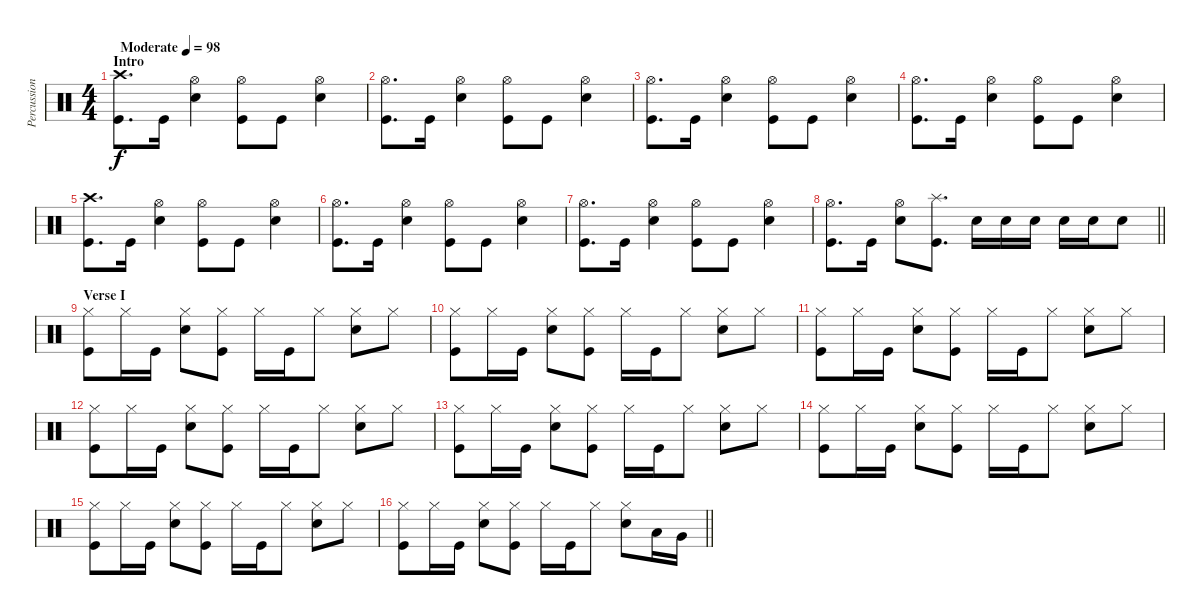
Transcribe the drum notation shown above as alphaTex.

\track ("Percussion" "Percussion") {instrument percussion}
\staff {score}
\articulation defaults
\ts (4 4)
\section ("" "Intro")
\tempo (98 "Moderate")
\clef neutral
\ks c
("Crash high (hit)" "Kick (hit)").8{d dy f} "Kick (hit)".16 ("Hi-Hat (open)" "Electric Snare (hit)").4 ("Hi-Hat (open)" "Kick (hit)").8 "Kick (hit)".8 ("Hi-Hat (open)" "Electric Snare (hit)").4 |
("Hi-Hat (open)" "Kick (hit)").8{d} "Kick (hit)".16 ("Hi-Hat (open)" "Electric Snare (hit)").4 ("Hi-Hat (open)" "Kick (hit)").8 "Kick (hit)".8 ("Hi-Hat (open)" "Electric Snare (hit)").4 |
("Hi-Hat (open)" "Kick (hit)").8{d} "Kick (hit)".16 ("Hi-Hat (open)" "Electric Snare (hit)").4 ("Hi-Hat (open)" "Kick (hit)").8 "Kick (hit)".8 ("Hi-Hat (open)" "Electric Snare (hit)").4 |
("Hi-Hat (open)" "Kick (hit)").8{d} "Kick (hit)".16 ("Hi-Hat (open)" "Electric Snare (hit)").4 ("Hi-Hat (open)" "Kick (hit)").8 "Kick (hit)".8 ("Hi-Hat (open)" "Electric Snare (hit)").4 |
("Crash high (hit)" "Kick (hit)").8{d} "Kick (hit)".16 ("Hi-Hat (open)" "Electric Snare (hit)").4 ("Hi-Hat (open)" "Kick (hit)").8 "Kick (hit)".8 ("Hi-Hat (open)" "Electric Snare (hit)").4 |
("Hi-Hat (open)" "Kick (hit)").8{d} "Kick (hit)".16 ("Hi-Hat (open)" "Electric Snare (hit)").4 ("Hi-Hat (open)" "Kick (hit)").8 "Kick (hit)".8 ("Hi-Hat (open)" "Electric Snare (hit)").4 |
("Hi-Hat (open)" "Kick (hit)").8{d} "Kick (hit)".16 ("Hi-Hat (open)" "Electric Snare (hit)").4 ("Hi-Hat (open)" "Kick (hit)").8 "Kick (hit)".8 ("Hi-Hat (open)" "Electric Snare (hit)").4 |
\barLineRight lightlight
("Hi-Hat (open)" "Kick (hit)").8{d} "Kick (hit)".16 ("Hi-Hat (open)" "Electric Snare (hit)").8 ("Splash (hit)" "Kick (hit)").8{d} "Electric Snare (hit)".16 "Electric Snare (hit)".16 "Electric Snare (hit)".16 "Electric Snare (hit)".16 "Electric Snare (hit)".16 "Electric Snare (hit)".8 |
\section ("" "Verse I")
("Hi-Hat (closed)" "Kick (hit)").8 "Hi-Hat (closed)".16 "Kick (hit)".16 ("Hi-Hat (closed)" "Electric Snare (hit)").8 ("Hi-Hat (closed)" "Kick (hit)").8 "Hi-Hat (closed)".16 "Kick (hit)".16 "Hi-Hat (closed)".8 ("Hi-Hat (closed)" "Electric Snare (hit)").8 "Hi-Hat (closed)".8 |
("Hi-Hat (closed)" "Kick (hit)").8 "Hi-Hat (closed)".16 "Kick (hit)".16 ("Hi-Hat (closed)" "Electric Snare (hit)").8 ("Hi-Hat (closed)" "Kick (hit)").8 "Hi-Hat (closed)".16 "Kick (hit)".16 "Hi-Hat (closed)".8 ("Hi-Hat (closed)" "Electric Snare (hit)").8 "Hi-Hat (closed)".8 |
("Hi-Hat (closed)" "Kick (hit)").8 "Hi-Hat (closed)".16 "Kick (hit)".16 ("Hi-Hat (closed)" "Electric Snare (hit)").8 ("Hi-Hat (closed)" "Kick (hit)").8 "Hi-Hat (closed)".16 "Kick (hit)".16 "Hi-Hat (closed)".8 ("Hi-Hat (closed)" "Electric Snare (hit)").8 "Hi-Hat (closed)".8 |
("Hi-Hat (closed)" "Kick (hit)").8 "Hi-Hat (closed)".16 "Kick (hit)".16 ("Hi-Hat (closed)" "Electric Snare (hit)").8 ("Hi-Hat (closed)" "Kick (hit)").8 "Hi-Hat (closed)".16 "Kick (hit)".16 "Hi-Hat (closed)".8 ("Hi-Hat (closed)" "Electric Snare (hit)").8 "Hi-Hat (closed)".8 |
("Hi-Hat (closed)" "Kick (hit)").8 "Hi-Hat (closed)".16 "Kick (hit)".16 ("Hi-Hat (closed)" "Electric Snare (hit)").8 ("Hi-Hat (closed)" "Kick (hit)").8 "Hi-Hat (closed)".16 "Kick (hit)".16 "Hi-Hat (closed)".8 ("Hi-Hat (closed)" "Electric Snare (hit)").8 "Hi-Hat (closed)".8 |
("Hi-Hat (closed)" "Kick (hit)").8 "Hi-Hat (closed)".16 "Kick (hit)".16 ("Hi-Hat (closed)" "Electric Snare (hit)").8 ("Hi-Hat (closed)" "Kick (hit)").8 "Hi-Hat (closed)".16 "Kick (hit)".16 "Hi-Hat (closed)".8 ("Hi-Hat (closed)" "Electric Snare (hit)").8 "Hi-Hat (closed)".8 |
("Hi-Hat (closed)" "Kick (hit)").8 "Hi-Hat (closed)".16 "Kick (hit)".16 ("Hi-Hat (closed)" "Electric Snare (hit)").8 ("Hi-Hat (closed)" "Kick (hit)").8 "Hi-Hat (closed)".16 "Kick (hit)".16 "Hi-Hat (closed)".8 ("Hi-Hat (closed)" "Electric Snare (hit)").8 "Hi-Hat (closed)".8 |
\barLineRight lightlight
("Hi-Hat (closed)" "Kick (hit)").8 "Hi-Hat (closed)".16 "Kick (hit)".16 ("Hi-Hat (closed)" "Electric Snare (hit)").8 ("Hi-Hat (closed)" "Kick (hit)").8 "Hi-Hat (closed)".16 "Kick (hit)".16 "Hi-Hat (closed)".8 ("Hi-Hat (closed)" "Electric Snare (hit)").8 "Low Tom (hit)".16 "Very Low Tom (hit)".16
